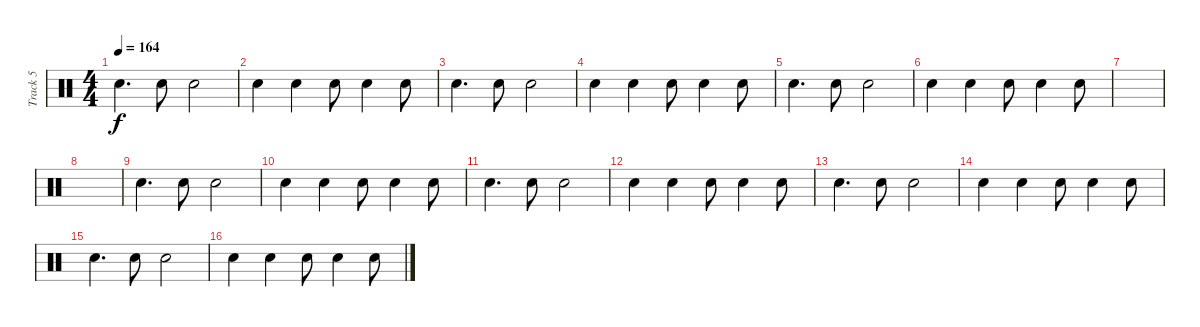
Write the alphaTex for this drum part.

\track ("Track 5" "Track 5") {instrument percussion}
\staff {score}
\articulation defaults
\ts (4 4)
\tempo 164
\clef neutral
\ks c "Electric Snare (hit)".4{d dy f} "Electric Snare (hit)".8 "Hand Clap (hit)".2
|
"Electric Snare (hit)".4 "Electric Snare (hit)".4 "Hand Clap (hit)".8 "Electric Snare (hit)".4 "Electric Snare (hit)".8 |
"Electric Snare (hit)".4{d} "Electric Snare (hit)".8 "Hand Clap (hit)".2 |
"Electric Snare (hit)".4 "Electric Snare (hit)".4 "Hand Clap (hit)".8 "Electric Snare (hit)".4 "Electric Snare (hit)".8 |
"Electric Snare (hit)".4{d} "Electric Snare (hit)".8 "Hand Clap (hit)".2 |
"Electric Snare (hit)".4 "Electric Snare (hit)".4 "Hand Clap (hit)".8 "Electric Snare (hit)".4 "Electric Snare (hit)".8 |
|
|
"Electric Snare (hit)".4{d} "Electric Snare (hit)".8 "Hand Clap (hit)".2 |
"Electric Snare (hit)".4 "Electric Snare (hit)".4 "Hand Clap (hit)".8 "Electric Snare (hit)".4 "Electric Snare (hit)".8 |
"Electric Snare (hit)".4{d} "Electric Snare (hit)".8 "Hand Clap (hit)".2 |
"Electric Snare (hit)".4 "Electric Snare (hit)".4 "Hand Clap (hit)".8 "Electric Snare (hit)".4 "Electric Snare (hit)".8 |
"Electric Snare (hit)".4{d} "Electric Snare (hit)".8 "Hand Clap (hit)".2 |
"Electric Snare (hit)".4 "Electric Snare (hit)".4 "Hand Clap (hit)".8 "Electric Snare (hit)".4 "Electric Snare (hit)".8 |
"Electric Snare (hit)".4{d} "Electric Snare (hit)".8 "Hand Clap (hit)".2 |
"Electric Snare (hit)".4 "Electric Snare (hit)".4 "Hand Clap (hit)".8 "Electric Snare (hit)".4 "Electric Snare (hit)".8
